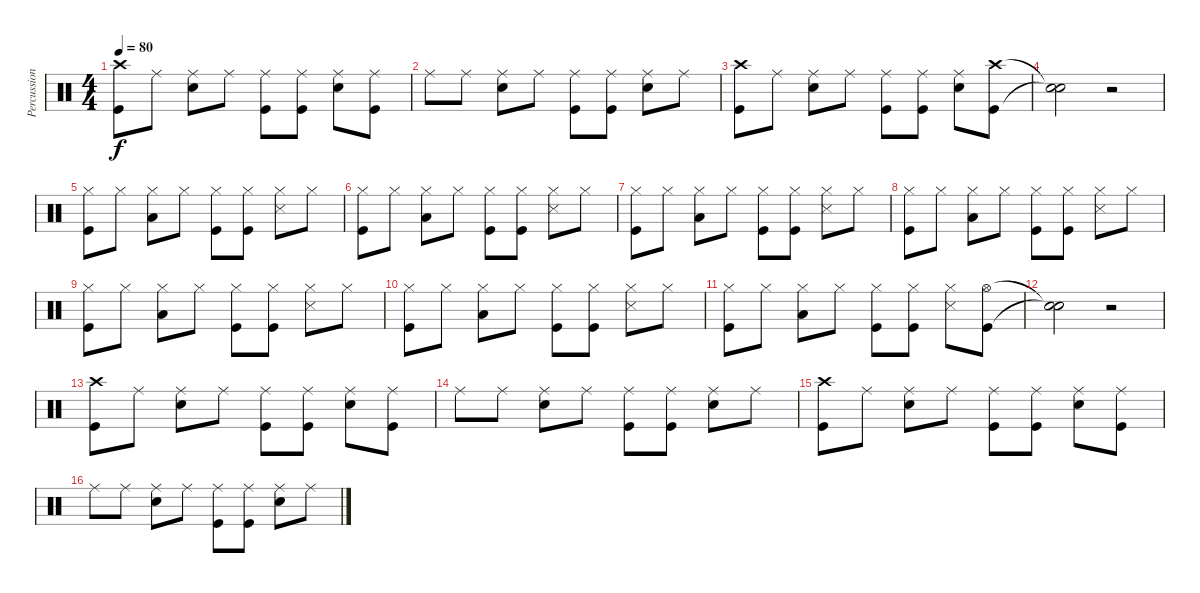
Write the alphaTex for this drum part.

\track ("Percussions" "Percussion") {instrument percussion}
\staff {score}
\articulation defaults
\ts (4 4)
\tempo 80
\clef neutral
\ks c
("Crash high (hit)" "Kick (hit)").8{dy f} "Ride (middle)".8 ("Ride (middle)" "Snare (hit) 2").8 "Ride (middle)".8 ("Ride (middle)" "Kick (hit)").8 ("Ride (middle)" "Kick (hit)").8 ("Ride (middle)" "Snare (hit) 2").8 ("Ride (middle)" "Kick (hit)").8 |
"Ride (middle)".8 "Ride (middle)".8 ("Ride (middle)" "Snare (hit) 2").8 "Ride (middle)".8 ("Ride (middle)" "Kick (hit)").8 ("Ride (middle)" "Kick (hit)").8 ("Ride (middle)" "Snare (hit) 2").8 "Ride (middle)".8 |
("Crash high (hit)" "Kick (hit)").8 "Ride (middle)".8 ("Ride (middle)" "Snare (hit) 2").8 "Ride (middle)".8 ("Ride (middle)" "Kick (hit)").8 ("Ride (middle)" "Kick (hit)").8 ("Ride (middle)" "Snare (hit) 2").8 ("Crash high (hit)" "Kick (hit)").8 |
("Snare (hit)"{t} "Snare (hit)"{t}).2 r.2 |
("Hi-Hat (closed)" "Kick (hit)").8 "Hi-Hat (closed)".8 ("Hi-Hat (closed)" "Low Tom (hit)").8 "Hi-Hat (closed)".8 ("Hi-Hat (closed)" "Kick (hit)").8 ("Hi-Hat (closed)" "Kick (hit)").8 ("Hi-Hat (closed)" "Snare (side stick) 3").8 "Hi-Hat (closed)".8 |
("Hi-Hat (closed)" "Kick (hit)").8 "Hi-Hat (closed)".8 ("Hi-Hat (closed)" "Low Tom (hit)").8 "Hi-Hat (closed)".8 ("Hi-Hat (closed)" "Kick (hit)").8 ("Hi-Hat (closed)" "Kick (hit)").8 ("Hi-Hat (closed)" "Snare (side stick) 3").8 "Hi-Hat (closed)".8 |
("Hi-Hat (closed)" "Kick (hit)").8 "Hi-Hat (closed)".8 ("Hi-Hat (closed)" "Low Tom (hit)").8 "Hi-Hat (closed)".8 ("Hi-Hat (closed)" "Kick (hit)").8 ("Hi-Hat (closed)" "Kick (hit)").8 ("Hi-Hat (closed)" "Snare (side stick) 3").8 "Hi-Hat (closed)".8 |
("Hi-Hat (closed)" "Kick (hit)").8 "Hi-Hat (closed)".8 ("Hi-Hat (closed)" "Low Tom (hit)").8 "Hi-Hat (closed)".8 ("Hi-Hat (closed)" "Kick (hit)").8 ("Hi-Hat (closed)" "Kick (hit)").8 ("Hi-Hat (closed)" "Snare (side stick) 3").8 "Hi-Hat (closed)".8 |
("Hi-Hat (closed)" "Kick (hit)").8 "Hi-Hat (closed)".8 ("Hi-Hat (closed)" "Low Tom (hit)").8 "Hi-Hat (closed)".8 ("Hi-Hat (closed)" "Kick (hit)").8 ("Hi-Hat (closed)" "Kick (hit)").8 ("Hi-Hat (closed)" "Snare (side stick) 3").8 "Hi-Hat (closed)".8 |
("Hi-Hat (closed)" "Kick (hit)").8 "Hi-Hat (closed)".8 ("Hi-Hat (closed)" "Low Tom (hit)").8 "Hi-Hat (closed)".8 ("Hi-Hat (closed)" "Kick (hit)").8 ("Hi-Hat (closed)" "Kick (hit)").8 ("Hi-Hat (closed)" "Snare (side stick) 3").8 "Hi-Hat (closed)".8 |
("Hi-Hat (closed)" "Kick (hit)").8 "Hi-Hat (closed)".8 ("Hi-Hat (closed)" "Low Tom (hit)").8 "Hi-Hat (closed)".8 ("Hi-Hat (closed)" "Kick (hit)").8 ("Hi-Hat (closed)" "Kick (hit)").8 ("Hi-Hat (closed)" "Snare (side stick) 3").8 ("Hi-Hat (open)" "Kick (hit)").8 |
("Snare (hit)"{t} "Snare (hit)"{t}).2 r.2 |
("Crash high (hit)" "Kick (hit)").8 "Ride (middle)".8 ("Ride (middle)" "Snare (hit) 2").8 "Ride (middle)".8 ("Ride (middle)" "Kick (hit)").8 ("Ride (middle)" "Kick (hit)").8 ("Ride (middle)" "Snare (hit) 2").8 ("Ride (middle)" "Kick (hit)").8 |
"Ride (middle)".8 "Ride (middle)".8 ("Ride (middle)" "Snare (hit) 2").8 "Ride (middle)".8 ("Ride (middle)" "Kick (hit)").8 ("Ride (middle)" "Kick (hit)").8 ("Ride (middle)" "Snare (hit) 2").8 "Ride (middle)".8 |
("Crash high (hit)" "Kick (hit)").8 "Ride (middle)".8 ("Ride (middle)" "Snare (hit) 2").8 "Ride (middle)".8 ("Ride (middle)" "Kick (hit)").8 ("Ride (middle)" "Kick (hit)").8 ("Ride (middle)" "Snare (hit) 2").8 ("Ride (middle)" "Kick (hit)").8 |
"Ride (middle)".8 "Ride (middle)".8 ("Ride (middle)" "Snare (hit) 2").8 "Ride (middle)".8 ("Ride (middle)" "Kick (hit)").8 ("Ride (middle)" "Kick (hit)").8 ("Ride (middle)" "Snare (hit) 2").8 "Ride (middle)".8
